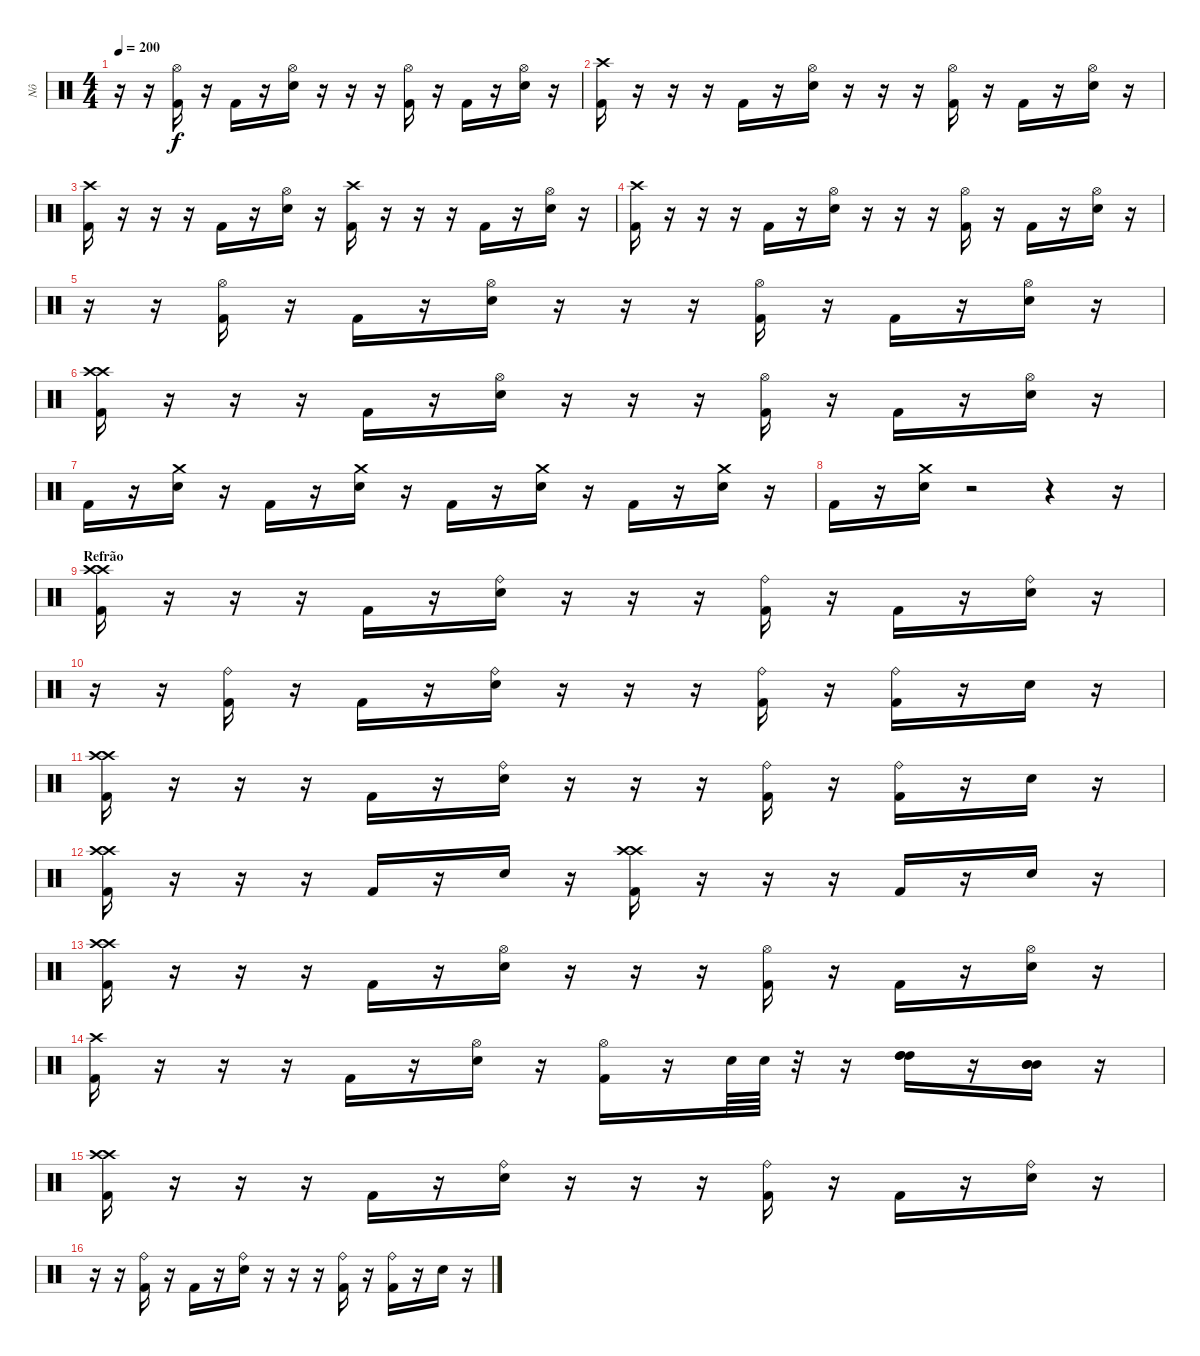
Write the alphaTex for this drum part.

\track ("Nô" "Nô") {instrument percussion}
\staff {score}
\articulation defaults
\ts (4 4)
\tempo 200
\clef neutral
\ks c
r.16{dy f} r.16 ("Hi-Hat (open)" "Kick (hit) 2").16 r.16 "Kick (hit) 2".16 r.16 ("Hi-Hat (open)" "Electric Snare (hit)").16 r.16 r.16 r.16 ("Hi-Hat (open)" "Kick (hit) 2").16 r.16 "Kick (hit) 2".16 r.16 ("Hi-Hat (open)" "Electric Snare (hit)").16 r.16 |
("Crash high (hit)" "Kick (hit) 2").16 r.16 r.16 r.16 "Kick (hit) 2".16 r.16 ("Hi-Hat (open)" "Electric Snare (hit)").16 r.16 r.16 r.16 ("Hi-Hat (open)" "Kick (hit) 2").16 r.16 "Kick (hit) 2".16 r.16 ("Hi-Hat (open)" "Electric Snare (hit)").16 r.16 |
("Crash high (hit)" "Kick (hit) 2").16 r.16 r.16 r.16 "Kick (hit) 2".16 r.16 ("Hi-Hat (open)" "Electric Snare (hit)").16 r.16 ("Crash high (hit)" "Kick (hit) 2").16 r.16 r.16 r.16 "Kick (hit) 2".16 r.16 ("Hi-Hat (open)" "Electric Snare (hit)").16 r.16 |
\section ("" ".")
("Crash high (hit)" "Kick (hit) 2").16 r.16 r.16 r.16 "Kick (hit) 2".16 r.16 ("Hi-Hat (open)" "Electric Snare (hit)").16 r.16 r.16 r.16 ("Hi-Hat (open)" "Kick (hit) 2").16 r.16 "Kick (hit) 2".16 r.16 ("Hi-Hat (open)" "Electric Snare (hit)").16 r.16 |
r.16 r.16 ("Hi-Hat (open)" "Kick (hit) 2").16 r.16 "Kick (hit) 2".16 r.16 ("Hi-Hat (open)" "Electric Snare (hit)").16 r.16 r.16 r.16 ("Hi-Hat (open)" "Kick (hit) 2").16 r.16 "Kick (hit) 2".16 r.16 ("Hi-Hat (open)" "Electric Snare (hit)").16 r.16 |
("Crash high (hit)" "Crash high (hit)" "Kick (hit) 2").16 r.16 r.16 r.16 "Kick (hit) 2".16 r.16 ("Hi-Hat (open)" "Electric Snare (hit)").16 r.16 r.16 r.16 ("Hi-Hat (open)" "Kick (hit) 2").16 r.16 "Kick (hit) 2".16 r.16 ("Hi-Hat (open)" "Electric Snare (hit)").16 r.16 |
"Kick (hit) 2".16 r.16 ("Crash medium (hit)" "Electric Snare (hit)").16 r.16 "Kick (hit) 2".16 r.16 ("Crash medium (hit)" "Electric Snare (hit)").16 r.16 "Kick (hit) 2".16 r.16 ("Crash medium (hit)" "Electric Snare (hit)").16 r.16 "Kick (hit) 2".16 r.16 ("Crash medium (hit)" "Electric Snare (hit)").16 r.16 |
"Kick (hit) 2".16 r.16 ("Crash medium (hit)" "Electric Snare (hit)").16 r.2 r.4 r.16 |
\section ("" "Refrão")
("Crash high (hit)" "Crash high (hit)" "Kick (hit) 2").16 r.16 r.16 r.16 "Kick (hit) 2".16 r.16 ("Ride (bell)" "Electric Snare (hit)").16 r.16 r.16 r.16 ("Ride (bell)" "Kick (hit) 2").16 r.16 "Kick (hit) 2".16 r.16 ("Ride (bell)" "Electric Snare (hit)").16 r.16 |
r.16 r.16 ("Ride (bell)" "Kick (hit) 2").16 r.16 "Kick (hit) 2".16 r.16 ("Ride (bell)" "Electric Snare (hit)").16 r.16 r.16 r.16 ("Ride (bell)" "Kick (hit) 2").16 r.16 ("Ride (bell)" "Kick (hit) 2").16 r.16 "Electric Snare (hit)".16 r.16 |
("Crash high (hit)" "Crash high (hit)" "Kick (hit) 2").16 r.16 r.16 r.16 "Kick (hit) 2".16 r.16 ("Ride (bell)" "Electric Snare (hit)").16 r.16 r.16 r.16 ("Ride (bell)" "Kick (hit) 2").16 r.16 ("Ride (bell)" "Kick (hit) 2").16 r.16 "Electric Snare (hit)".16 r.16 |
("Crash high (hit)" "Crash high (hit)" "Kick (hit) 2").16 r.16 r.16 r.16 "Kick (hit) 2".16 r.16 "Electric Snare (hit)".16 r.16 ("Crash high (hit)" "Crash high (hit)" "Kick (hit) 2").16 r.16 r.16 r.16 "Kick (hit) 2".16 r.16 "Electric Snare (hit)".16 r.16 |
("Crash high (hit)" "Crash high (hit)" "Kick (hit) 2").16 r.16 r.16 r.16 "Kick (hit) 2".16 r.16 ("Hi-Hat (open)" "Electric Snare (hit)").16 r.16 r.16 r.16 ("Hi-Hat (open)" "Kick (hit) 2").16 r.16 "Kick (hit) 2".16 r.16 ("Hi-Hat (open)" "Electric Snare (hit)").16 r.16 |
("Crash high (hit)" "Kick (hit) 2").16 r.16 r.16 r.16 "Kick (hit) 2".16 r.16 ("Hi-Hat (open)" "Electric Snare (hit)").16 r.16 ("Hi-Hat (open)" "Kick (hit) 2").16 r.16 "Electric Snare (hit)".64 "Electric Snare (hit)".64 r.32 r.16 ("High Tom (hit)" "High Tom (hit)" "High Tom (hit)").16 r.16 ("Mid Tom (hit)" "Mid Tom (hit)" "Mid Tom (hit)").16 r.16 |
\section ("" ".")
("Crash high (hit)" "Crash high (hit)" "Kick (hit) 2").16 r.16 r.16 r.16 "Kick (hit) 2".16 r.16 ("Ride (bell)" "Electric Snare (hit)").16 r.16 r.16 r.16 ("Ride (bell)" "Kick (hit) 2").16 r.16 "Kick (hit) 2".16 r.16 ("Ride (bell)" "Electric Snare (hit)").16 r.16 |
r.16 r.16 ("Ride (bell)" "Kick (hit) 2").16 r.16 "Kick (hit) 2".16 r.16 ("Ride (bell)" "Electric Snare (hit)").16 r.16 r.16 r.16 ("Ride (bell)" "Kick (hit) 2").16 r.16 ("Ride (bell)" "Kick (hit) 2").16 r.16 "Electric Snare (hit)".16 r.16
